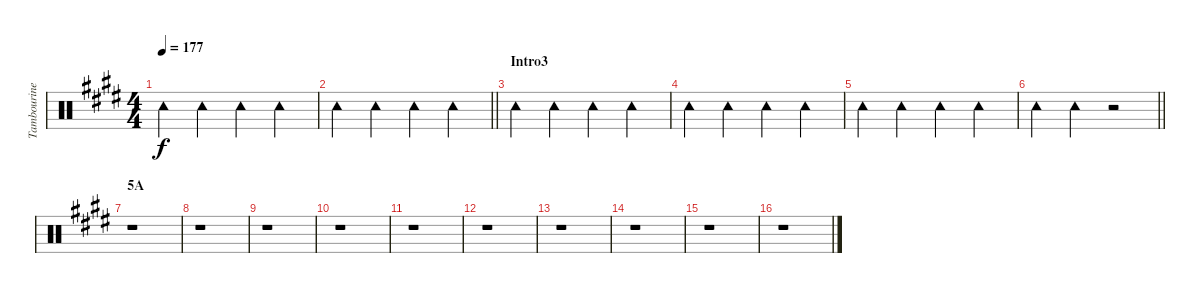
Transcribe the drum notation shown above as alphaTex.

\track ("Tambourine" "Tambourine") {instrument percussion}
\staff {score}
\articulation defaults
\ts (4 4)
\tempo 177
\clef neutral
\ks e "Tambourine (hit)".4{dy f} "Tambourine (hit)".4 "Tambourine (hit)".4 "Tambourine (hit)".4
|
\barLineRight lightlight "Tambourine (hit)".4 "Tambourine (hit)".4 "Tambourine (hit)".4 "Tambourine (hit)".4
|
\section ("" "Intro3")
"Tambourine (hit)".4 "Tambourine (hit)".4 "Tambourine (hit)".4 "Tambourine (hit)".4 |
"Tambourine (hit)".4 "Tambourine (hit)".4 "Tambourine (hit)".4 "Tambourine (hit)".4 |
"Tambourine (hit)".4 "Tambourine (hit)".4 "Tambourine (hit)".4 "Tambourine (hit)".4 |
\barLineRight lightlight "Tambourine (hit)".4 "Tambourine (hit)".4
r.2 |
\section ("" "5A")
r.1 |
r.1 |
r.1 |
r.1 |
r.1 |
r.1 |
r.1 |
r.1 |
r.1 |
r.1
